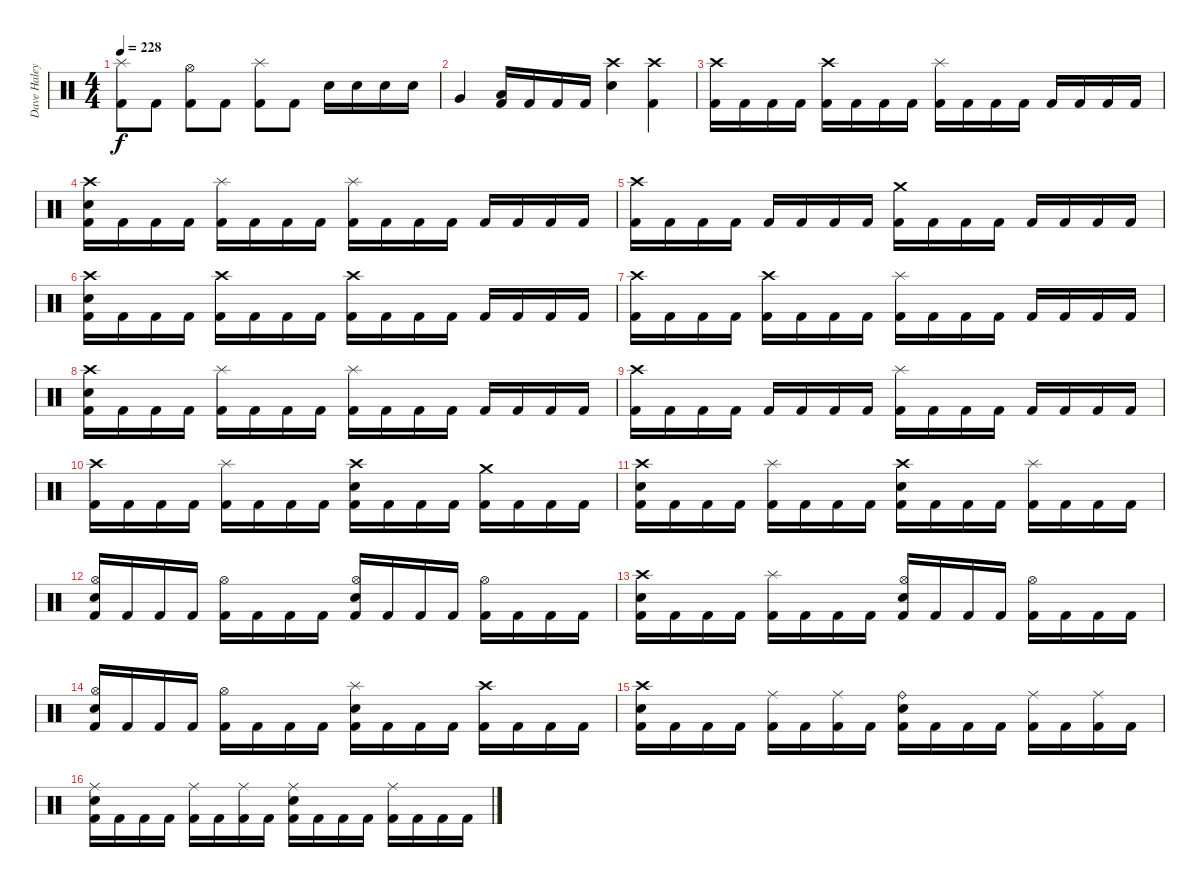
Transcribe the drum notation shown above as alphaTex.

\track ("Dave Haley" "Dave Haley") {instrument percussion}
\staff {score}
\articulation defaults
\ts (4 4)
\tempo 228
\clef neutral
\ks c
("Splash (hit)" "Kick (hit) 2").8{dy f} "Kick (hit) 2".8 ("Hi-Hat (open)" "Kick (hit) 2").8 "Kick (hit) 2".8 ("Splash (hit)" "Kick (hit) 2").8 "Kick (hit) 2".8 "Snare (hit) 2".16 "Snare (hit) 2".16 "Snare (hit) 2".16 "Snare (hit) 2".16 |
"Very Low Tom (hit)".4 ("Low Floor Tom (hit)" "Kick (hit) 2").16 "Kick (hit) 2".16 "Kick (hit) 2".16 "Kick (hit) 2".16 ("Crash high (hit)" "Snare (hit) 2").4 ("Crash high (hit)" "Kick (hit) 2").4 |
("Crash high (hit)" "Kick (hit) 2").16 "Kick (hit) 2".16 "Kick (hit) 2".16 "Kick (hit) 2".16 ("Crash high (hit)" "Kick (hit) 2").16 "Kick (hit) 2".16 "Kick (hit) 2".16 "Kick (hit) 2".16 ("Splash (hit)" "Kick (hit) 2").16 "Kick (hit) 2".16 "Kick (hit) 2".16 "Kick (hit) 2".16 "Kick (hit) 2".16 "Kick (hit) 2".16 "Kick (hit) 2".16 "Kick (hit) 2".16 |
("Crash high (hit)" "Snare (hit) 2" "Kick (hit) 2").16 "Kick (hit) 2".16 "Kick (hit) 2".16 "Kick (hit) 2".16 ("Splash (hit)" "Kick (hit) 2").16 "Kick (hit) 2".16 "Kick (hit) 2".16 "Kick (hit) 2".16 ("Splash (hit)" "Kick (hit) 2").16 "Kick (hit) 2".16 "Kick (hit) 2".16 "Kick (hit) 2".16 "Kick (hit) 2".16 "Kick (hit) 2".16 "Kick (hit) 2".16 "Kick (hit) 2".16 |
("Crash high (hit)" "Kick (hit) 2").16 "Kick (hit) 2".16 "Kick (hit) 2".16 "Kick (hit) 2".16 "Kick (hit) 2".16 "Kick (hit) 2".16 "Kick (hit) 2".16 "Kick (hit) 2".16 ("Crash medium (hit)" "Kick (hit) 2").16 "Kick (hit) 2".16 "Kick (hit) 2".16 "Kick (hit) 2".16 "Kick (hit) 2".16 "Kick (hit) 2".16 "Kick (hit) 2".16 "Kick (hit) 2".16 |
("Crash high (hit)" "Snare (hit) 2" "Kick (hit) 2").16 "Kick (hit) 2".16 "Kick (hit) 2".16 "Kick (hit) 2".16 ("Crash high (hit)" "Kick (hit) 2").16 "Kick (hit) 2".16 "Kick (hit) 2".16 "Kick (hit) 2".16 ("Crash high (hit)" "Kick (hit) 2").16 "Kick (hit) 2".16 "Kick (hit) 2".16 "Kick (hit) 2".16 "Kick (hit) 2".16 "Kick (hit) 2".16 "Kick (hit) 2".16 "Kick (hit) 2".16 |
("Crash high (hit)" "Kick (hit) 2").16 "Kick (hit) 2".16 "Kick (hit) 2".16 "Kick (hit) 2".16 ("Crash high (hit)" "Kick (hit) 2").16 "Kick (hit) 2".16 "Kick (hit) 2".16 "Kick (hit) 2".16 ("Splash (hit)" "Kick (hit) 2").16 "Kick (hit) 2".16 "Kick (hit) 2".16 "Kick (hit) 2".16 "Kick (hit) 2".16 "Kick (hit) 2".16 "Kick (hit) 2".16 "Kick (hit) 2".16 |
("Crash high (hit)" "Snare (hit) 2" "Kick (hit) 2").16 "Kick (hit) 2".16 "Kick (hit) 2".16 "Kick (hit) 2".16 ("Splash (hit)" "Kick (hit) 2").16 "Kick (hit) 2".16 "Kick (hit) 2".16 "Kick (hit) 2".16 ("Splash (hit)" "Kick (hit) 2").16 "Kick (hit) 2".16 "Kick (hit) 2".16 "Kick (hit) 2".16 "Kick (hit) 2".16 "Kick (hit) 2".16 "Kick (hit) 2".16 "Kick (hit) 2".16 |
("Crash high (hit)" "Kick (hit) 2").16 "Kick (hit) 2".16 "Kick (hit) 2".16 "Kick (hit) 2".16 "Kick (hit) 2".16 "Kick (hit) 2".16 "Kick (hit) 2".16 "Kick (hit) 2".16 ("Splash (hit)" "Kick (hit) 2").16 "Kick (hit) 2".16 "Kick (hit) 2".16 "Kick (hit) 2".16 "Kick (hit) 2".16 "Kick (hit) 2".16 "Kick (hit) 2".16 "Kick (hit) 2".16 |
("Crash high (hit)" "Kick (hit) 2").16 "Kick (hit) 2".16 "Kick (hit) 2".16 "Kick (hit) 2".16 ("Splash (hit)" "Kick (hit) 2").16 "Kick (hit) 2".16 "Kick (hit) 2".16 "Kick (hit) 2".16 ("Crash high (hit)" "Snare (hit) 2" "Kick (hit) 2").16 "Kick (hit) 2".16 "Kick (hit) 2".16 "Kick (hit) 2".16 ("Crash medium (hit)" "Kick (hit) 2").16 "Kick (hit) 2".16 "Kick (hit) 2".16 "Kick (hit) 2".16 |
("Crash high (hit)" "Snare (hit) 2" "Kick (hit) 2").16 "Kick (hit) 2".16 "Kick (hit) 2".16 "Kick (hit) 2".16 ("Splash (hit)" "Kick (hit) 2").16 "Kick (hit) 2".16 "Kick (hit) 2".16 "Kick (hit) 2".16 ("Crash high (hit)" "Snare (hit) 2" "Kick (hit) 2").16 "Kick (hit) 2".16 "Kick (hit) 2".16 "Kick (hit) 2".16 ("Splash (hit)" "Kick (hit) 2").16 "Kick (hit) 2".16 "Kick (hit) 2".16 "Kick (hit) 2".16 |
("Hi-Hat (open)" "Snare (hit) 2" "Kick (hit) 2").16 "Kick (hit) 2".16 "Kick (hit) 2".16 "Kick (hit) 2".16 ("Hi-Hat (open)" "Kick (hit) 2").16 "Kick (hit) 2".16 "Kick (hit) 2".16 "Kick (hit) 2".16 ("Hi-Hat (open)" "Snare (hit) 2" "Kick (hit) 2").16 "Kick (hit) 2".16 "Kick (hit) 2".16 "Kick (hit) 2".16 ("Hi-Hat (open)" "Kick (hit) 2").16 "Kick (hit) 2".16 "Kick (hit) 2".16 "Kick (hit) 2".16 |
("Crash high (hit)" "Snare (hit) 2" "Kick (hit) 2").16 "Kick (hit) 2".16 "Kick (hit) 2".16 "Kick (hit) 2".16 ("Splash (hit)" "Kick (hit) 2").16 "Kick (hit) 2".16 "Kick (hit) 2".16 "Kick (hit) 2".16 ("Hi-Hat (open)" "Snare (hit) 2" "Kick (hit) 2").16 "Kick (hit) 2".16 "Kick (hit) 2".16 "Kick (hit) 2".16 ("Hi-Hat (open)" "Kick (hit) 2").16 "Kick (hit) 2".16 "Kick (hit) 2".16 "Kick (hit) 2".16 |
("Hi-Hat (open)" "Snare (hit) 2" "Kick (hit) 2").16 "Kick (hit) 2".16 "Kick (hit) 2".16 "Kick (hit) 2".16 ("Hi-Hat (open)" "Kick (hit) 2").16 "Kick (hit) 2".16 "Kick (hit) 2".16 "Kick (hit) 2".16 ("Splash (hit)" "Snare (hit) 2" "Kick (hit) 2").16 "Kick (hit) 2".16 "Kick (hit) 2".16 "Kick (hit) 2".16 ("Crash high (hit)" "Kick (hit) 2").16 "Kick (hit) 2".16 "Kick (hit) 2".16 "Kick (hit) 2".16 |
("Crash high (hit)" "Snare (hit) 2" "Kick (hit) 2").16 "Kick (hit) 2".16 "Kick (hit) 2".16 "Kick (hit) 2".16 ("Ride (middle)" "Kick (hit) 2").16 "Kick (hit) 2".16 ("Ride (middle)" "Kick (hit) 2").16 "Kick (hit) 2".16 ("Ride (bell)" "Snare (hit) 2" "Kick (hit) 2").16 "Kick (hit) 2".16 "Kick (hit) 2".16 "Kick (hit) 2".16 ("Ride (middle)" "Kick (hit) 2").16 "Kick (hit) 2".16 ("Ride (middle)" "Kick (hit) 2").16 "Kick (hit) 2".16 |
("Ride (middle)" "Snare (hit) 2" "Kick (hit) 2").16 "Kick (hit) 2".16 "Kick (hit) 2".16 "Kick (hit) 2".16 ("Ride (middle)" "Kick (hit) 2").16 "Kick (hit) 2".16 ("Ride (middle)" "Kick (hit) 2").16 "Kick (hit) 2".16 ("Ride (middle)" "Snare (hit) 2" "Kick (hit) 2").16 "Kick (hit) 2".16 "Kick (hit) 2".16 "Kick (hit) 2".16 ("Ride (middle)" "Kick (hit) 2").16 "Kick (hit) 2".16 "Kick (hit) 2".16 "Kick (hit) 2".16
